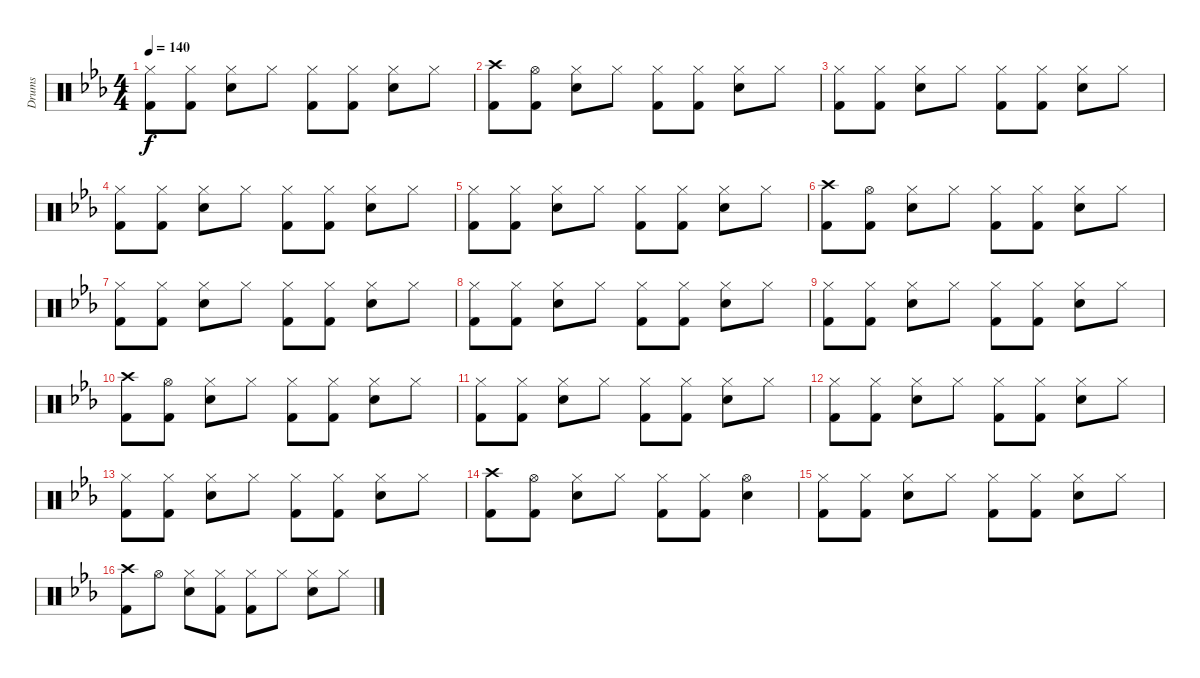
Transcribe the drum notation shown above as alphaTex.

\track ("Drums" "Drums") {instrument percussion}
\staff {score}
\articulation defaults
\ts (4 4)
\tempo 140
\clef neutral
\ks eb
("Hi-Hat (closed)" "Kick (hit) 2").8{dy f} ("Hi-Hat (closed)" "Kick (hit) 2").8 ("Hi-Hat (closed)" "Electric Snare (hit)").8 "Hi-Hat (closed)".8 ("Hi-Hat (closed)" "Kick (hit) 2").8 ("Hi-Hat (closed)" "Kick (hit) 2").8 ("Hi-Hat (closed)" "Electric Snare (hit)").8 "Hi-Hat (closed)".8 |
("Crash high (hit)" "Kick (hit) 2").8 ("Hi-Hat (open)" "Kick (hit) 2").8 ("Hi-Hat (closed)" "Electric Snare (hit)").8 "Hi-Hat (closed)".8 ("Hi-Hat (closed)" "Kick (hit) 2").8 ("Hi-Hat (closed)" "Kick (hit) 2").8 ("Hi-Hat (closed)" "Electric Snare (hit)").8 "Hi-Hat (closed)".8 |
("Hi-Hat (closed)" "Kick (hit) 2").8 ("Hi-Hat (closed)" "Kick (hit) 2").8 ("Hi-Hat (closed)" "Electric Snare (hit)").8 "Hi-Hat (closed)".8 ("Hi-Hat (closed)" "Kick (hit) 2").8 ("Hi-Hat (closed)" "Kick (hit) 2").8 ("Hi-Hat (closed)" "Electric Snare (hit)").8 "Hi-Hat (closed)".8 |
("Hi-Hat (closed)" "Kick (hit) 2").8 ("Hi-Hat (closed)" "Kick (hit) 2").8 ("Hi-Hat (closed)" "Electric Snare (hit)").8 "Hi-Hat (closed)".8 ("Hi-Hat (closed)" "Kick (hit) 2").8 ("Hi-Hat (closed)" "Kick (hit) 2").8 ("Hi-Hat (closed)" "Electric Snare (hit)").8 "Hi-Hat (closed)".8 |
("Hi-Hat (closed)" "Kick (hit) 2").8 ("Hi-Hat (closed)" "Kick (hit) 2").8 ("Hi-Hat (closed)" "Electric Snare (hit)").8 "Hi-Hat (closed)".8 ("Hi-Hat (closed)" "Kick (hit) 2").8 ("Hi-Hat (closed)" "Kick (hit) 2").8 ("Hi-Hat (closed)" "Electric Snare (hit)").8 "Hi-Hat (closed)".8 |
("Crash high (hit)" "Kick (hit) 2").8 ("Hi-Hat (open)" "Kick (hit) 2").8 ("Hi-Hat (closed)" "Electric Snare (hit)").8 "Hi-Hat (closed)".8 ("Hi-Hat (closed)" "Kick (hit) 2").8 ("Hi-Hat (closed)" "Kick (hit) 2").8 ("Hi-Hat (closed)" "Electric Snare (hit)").8 "Hi-Hat (closed)".8 |
("Hi-Hat (closed)" "Kick (hit) 2").8 ("Hi-Hat (closed)" "Kick (hit) 2").8 ("Hi-Hat (closed)" "Electric Snare (hit)").8 "Hi-Hat (closed)".8 ("Hi-Hat (closed)" "Kick (hit) 2").8 ("Hi-Hat (closed)" "Kick (hit) 2").8 ("Hi-Hat (closed)" "Electric Snare (hit)").8 "Hi-Hat (closed)".8 |
("Hi-Hat (closed)" "Kick (hit) 2").8 ("Hi-Hat (closed)" "Kick (hit) 2").8 ("Hi-Hat (closed)" "Electric Snare (hit)").8 "Hi-Hat (closed)".8 ("Hi-Hat (closed)" "Kick (hit) 2").8 ("Hi-Hat (closed)" "Kick (hit) 2").8 ("Hi-Hat (closed)" "Electric Snare (hit)").8 "Hi-Hat (closed)".8 |
("Hi-Hat (closed)" "Kick (hit) 2").8 ("Hi-Hat (closed)" "Kick (hit) 2").8 ("Hi-Hat (closed)" "Electric Snare (hit)").8 "Hi-Hat (closed)".8 ("Hi-Hat (closed)" "Kick (hit) 2").8 ("Hi-Hat (closed)" "Kick (hit) 2").8 ("Hi-Hat (closed)" "Electric Snare (hit)").8 "Hi-Hat (closed)".8 |
("Crash high (hit)" "Kick (hit) 2").8 ("Hi-Hat (open)" "Kick (hit) 2").8 ("Hi-Hat (closed)" "Electric Snare (hit)").8 "Hi-Hat (closed)".8 ("Hi-Hat (closed)" "Kick (hit) 2").8 ("Hi-Hat (closed)" "Kick (hit) 2").8 ("Hi-Hat (closed)" "Electric Snare (hit)").8 "Hi-Hat (closed)".8 |
("Hi-Hat (closed)" "Kick (hit) 2").8 ("Hi-Hat (closed)" "Kick (hit) 2").8 ("Hi-Hat (closed)" "Electric Snare (hit)").8 "Hi-Hat (closed)".8 ("Hi-Hat (closed)" "Kick (hit) 2").8 ("Hi-Hat (closed)" "Kick (hit) 2").8 ("Hi-Hat (closed)" "Electric Snare (hit)").8 "Hi-Hat (closed)".8 |
("Hi-Hat (closed)" "Kick (hit) 2").8 ("Hi-Hat (closed)" "Kick (hit) 2").8 ("Hi-Hat (closed)" "Electric Snare (hit)").8 "Hi-Hat (closed)".8 ("Hi-Hat (closed)" "Kick (hit) 2").8 ("Hi-Hat (closed)" "Kick (hit) 2").8 ("Hi-Hat (closed)" "Electric Snare (hit)").8 "Hi-Hat (closed)".8 |
("Hi-Hat (closed)" "Kick (hit) 2").8 ("Hi-Hat (closed)" "Kick (hit) 2").8 ("Hi-Hat (closed)" "Electric Snare (hit)").8 "Hi-Hat (closed)".8 ("Hi-Hat (closed)" "Kick (hit) 2").8 ("Hi-Hat (closed)" "Kick (hit) 2").8 ("Hi-Hat (closed)" "Electric Snare (hit)").8 "Hi-Hat (closed)".8 |
("Crash high (hit)" "Kick (hit) 2").8 ("Hi-Hat (open)" "Kick (hit) 2").8 ("Hi-Hat (closed)" "Electric Snare (hit)").8 "Hi-Hat (closed)".8 ("Hi-Hat (closed)" "Kick (hit) 2").8 ("Hi-Hat (closed)" "Kick (hit) 2").8 ("Hi-Hat (open)" "Electric Snare (hit)").4 |
("Hi-Hat (closed)" "Kick (hit) 2").8 ("Hi-Hat (closed)" "Kick (hit) 2").8 ("Hi-Hat (closed)" "Electric Snare (hit)").8 "Hi-Hat (closed)".8 ("Hi-Hat (closed)" "Kick (hit) 2").8 ("Hi-Hat (closed)" "Kick (hit) 2").8 ("Hi-Hat (closed)" "Electric Snare (hit)").8 "Hi-Hat (closed)".8 |
("Crash high (hit)" "Kick (hit) 2").8 "Hi-Hat (open)".8 ("Hi-Hat (closed)" "Electric Snare (hit)").8 ("Hi-Hat (closed)" "Kick (hit) 2").8 ("Hi-Hat (closed)" "Kick (hit) 2").8 "Hi-Hat (closed)".8 ("Hi-Hat (closed)" "Electric Snare (hit)").8 "Hi-Hat (closed)".8
